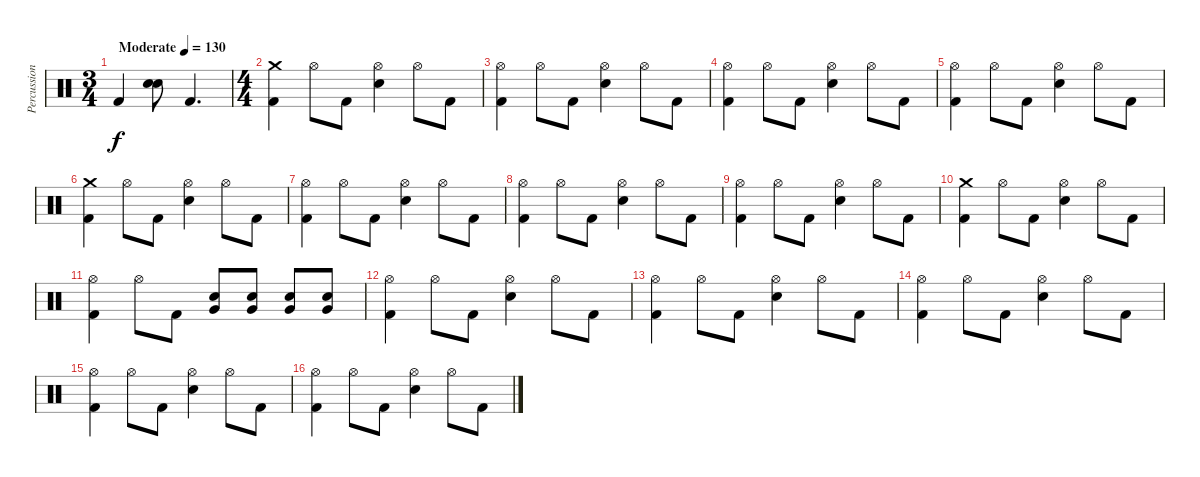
\track ("Percussion" "Percussion") {instrument percussion}
\staff {score}
\articulation defaults
\ts (3 4)
\tempo (130 "Moderate")
\clef neutral
\ks c "Kick (hit) 2".4{dy f}
("Electric Snare (hit)" "Snare (hit) 2").8 "Kick (hit) 2".4{d} |
\ts (4 4)
("Crash medium (hit)" "Kick (hit) 2").4 "Hi-Hat (open)".8 "Kick (hit) 2".8 ("Hi-Hat (open)" "Electric Snare (hit)").4 "Hi-Hat (open)".8 "Kick (hit) 2".8 |
("Hi-Hat (open)" "Kick (hit) 2").4 "Hi-Hat (open)".8 "Kick (hit) 2".8 ("Hi-Hat (open)" "Electric Snare (hit)").4 "Hi-Hat (open)".8 "Kick (hit) 2".8 |
("Hi-Hat (open)" "Kick (hit) 2").4 "Hi-Hat (open)".8 "Kick (hit) 2".8 ("Hi-Hat (open)" "Electric Snare (hit)").4 "Hi-Hat (open)".8 "Kick (hit) 2".8 |
("Hi-Hat (open)" "Kick (hit) 2").4 "Hi-Hat (open)".8 "Kick (hit) 2".8 ("Hi-Hat (open)" "Electric Snare (hit)").4 "Hi-Hat (open)".8 "Kick (hit) 2".8 |
("Crash medium (hit)" "Kick (hit) 2").4 "Hi-Hat (open)".8 "Kick (hit) 2".8 ("Hi-Hat (open)" "Electric Snare (hit)").4 "Hi-Hat (open)".8 "Kick (hit) 2".8 |
("Hi-Hat (open)" "Kick (hit) 2").4 "Hi-Hat (open)".8 "Kick (hit) 2".8 ("Hi-Hat (open)" "Electric Snare (hit)").4 "Hi-Hat (open)".8 "Kick (hit) 2".8 |
("Hi-Hat (open)" "Kick (hit) 2").4 "Hi-Hat (open)".8 "Kick (hit) 2".8 ("Hi-Hat (open)" "Electric Snare (hit)").4 "Hi-Hat (open)".8 "Kick (hit) 2".8 |
("Hi-Hat (open)" "Kick (hit) 2").4 "Hi-Hat (open)".8 "Kick (hit) 2".8 ("Hi-Hat (open)" "Electric Snare (hit)").4 "Hi-Hat (open)".8 "Kick (hit) 2".8 |
("Crash medium (hit)" "Kick (hit) 2").4 "Hi-Hat (open)".8 "Kick (hit) 2".8 ("Hi-Hat (open)" "Electric Snare (hit)").4 "Hi-Hat (open)".8 "Kick (hit) 2".8 |
("Hi-Hat (open)" "Kick (hit) 2").4 "Hi-Hat (open)".8 "Kick (hit) 2".8 ("Very Low Tom (hit)" "Electric Snare (hit)").8 ("Very Low Tom (hit)" "Electric Snare (hit)").8 ("Very Low Tom (hit)" "Electric Snare (hit)").8 ("Very Low Tom (hit)" "Electric Snare (hit)").8 |
("Hi-Hat (open)" "Kick (hit) 2").4 "Hi-Hat (open)".8 "Kick (hit) 2".8 ("Hi-Hat (open)" "Electric Snare (hit)").4 "Hi-Hat (open)".8 "Kick (hit) 2".8 |
("Hi-Hat (open)" "Kick (hit) 2").4 "Hi-Hat (open)".8 "Kick (hit) 2".8 ("Hi-Hat (open)" "Electric Snare (hit)").4 "Hi-Hat (open)".8 "Kick (hit) 2".8 |
("Hi-Hat (open)" "Kick (hit) 2").4 "Hi-Hat (open)".8 "Kick (hit) 2".8 ("Hi-Hat (open)" "Electric Snare (hit)").4 "Hi-Hat (open)".8 "Kick (hit) 2".8 |
("Hi-Hat (open)" "Kick (hit) 2").4 "Hi-Hat (open)".8 "Kick (hit) 2".8 ("Hi-Hat (open)" "Electric Snare (hit)").4 "Hi-Hat (open)".8 "Kick (hit) 2".8 |
("Hi-Hat (open)" "Kick (hit) 2").4 "Hi-Hat (open)".8 "Kick (hit) 2".8 ("Hi-Hat (open)" "Electric Snare (hit)").4 "Hi-Hat (open)".8 "Kick (hit) 2".8
